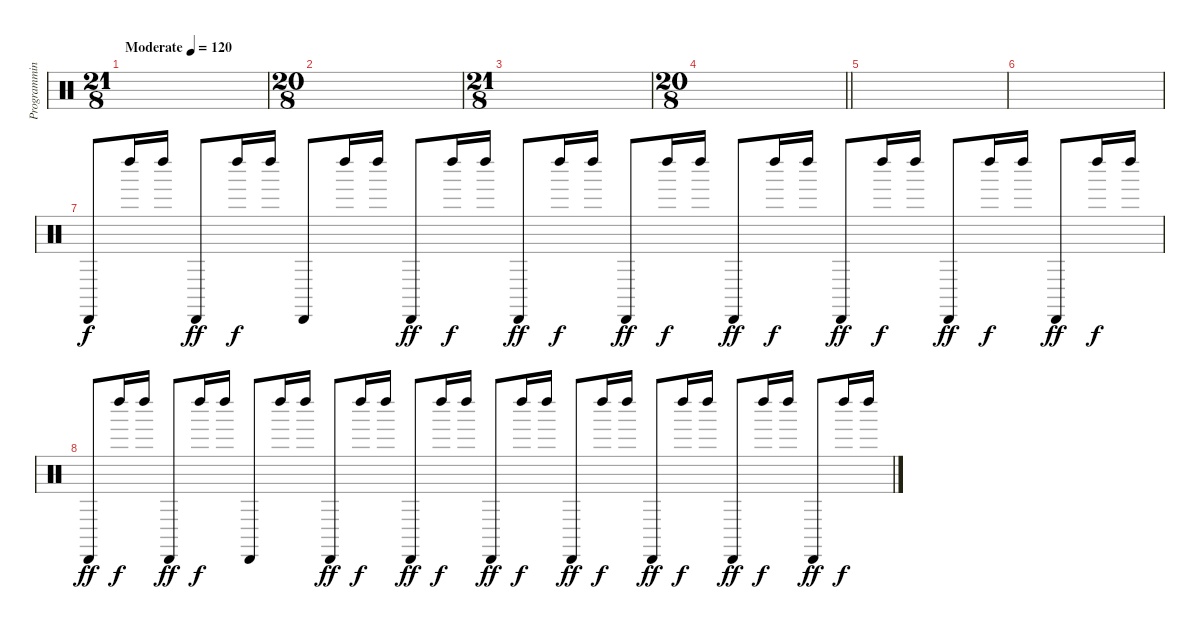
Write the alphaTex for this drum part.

\track ("Programming" "Programmin") {instrument percussion}
\staff {score}
\articulation defaults
\ts (21 8)
\section ("" "")
\tempo (120 "Moderate")
\clef neutral
\ks c
|
\ts (20 8)
|
\ts (21 8)
|
\ts (20 8)
\barLineRight lightlight
|
\section ("" "")
|
|
"Cabasa (hit)".8 "Left Maraca (hit)".16{dy f} "Left Maraca (hit)".16 "Cabasa (hit)".8{dy ff} "Left Maraca (hit)".16{dy f} "Left Maraca (hit)".16 "Cabasa (hit)".8 "Left Maraca (hit)".16 "Left Maraca (hit)".16 "Cabasa (hit)".8{dy ff} "Left Maraca (hit)".16{dy f} "Left Maraca (hit)".16 "Cabasa (hit)".8{dy ff} "Left Maraca (hit)".16{dy f} "Left Maraca (hit)".16 "Cabasa (hit)".8{dy ff} "Left Maraca (hit)".16{dy f} "Left Maraca (hit)".16 "Cabasa (hit)".8{dy ff} "Left Maraca (hit)".16{dy f} "Left Maraca (hit)".16 "Cabasa (hit)".8{dy ff} "Left Maraca (hit)".16{dy f} "Left Maraca (hit)".16 "Cabasa (hit)".8{dy ff} "Left Maraca (hit)".16{dy f} "Left Maraca (hit)".16 "Cabasa (hit)".8{dy ff} "Left Maraca (hit)".16{dy f} "Left Maraca (hit)".16 |
"Cabasa (hit)".8{dy ff} "Left Maraca (hit)".16{dy f} "Left Maraca (hit)".16 "Cabasa (hit)".8{dy ff} "Left Maraca (hit)".16{dy f} "Left Maraca (hit)".16 "Cabasa (hit)".8 "Left Maraca (hit)".16 "Left Maraca (hit)".16 "Cabasa (hit)".8{dy ff} "Left Maraca (hit)".16{dy f} "Left Maraca (hit)".16 "Cabasa (hit)".8{dy ff} "Left Maraca (hit)".16{dy f} "Left Maraca (hit)".16 "Cabasa (hit)".8{dy ff} "Left Maraca (hit)".16{dy f} "Left Maraca (hit)".16 "Cabasa (hit)".8{dy ff} "Left Maraca (hit)".16{dy f} "Left Maraca (hit)".16 "Cabasa (hit)".8{dy ff} "Left Maraca (hit)".16{dy f} "Left Maraca (hit)".16 "Cabasa (hit)".8{dy ff} "Left Maraca (hit)".16{dy f} "Left Maraca (hit)".16 "Cabasa (hit)".8{dy ff} "Left Maraca (hit)".16{dy f} "Left Maraca (hit)".16
